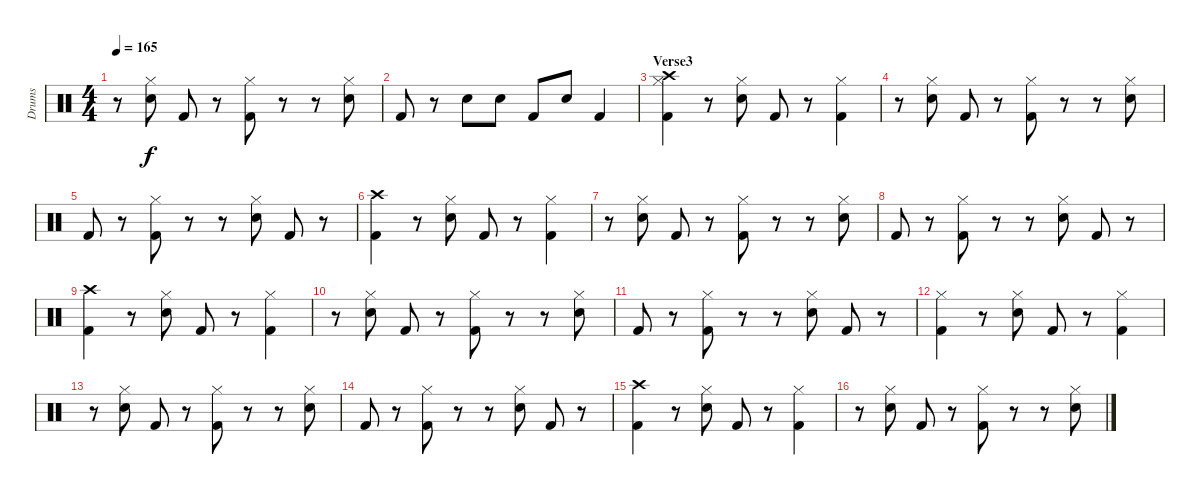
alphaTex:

\track ("Drums" "Drums") {instrument percussion}
\staff {score}
\articulation defaults
\ts (4 4)
\tempo 165
\clef neutral
\ks c
r.8{dy f} ("Electric Snare (hit)" "Hi-Hat (closed)").8 "Kick (hit) 2".8 r.8 ("Kick (hit) 2" "Hi-Hat (closed)").8 r.8 r.8 ("Hi-Hat (closed)" "Electric Snare (hit)").8 |
"Kick (hit) 2".8 r.8 "Electric Snare (hit)".8 "Electric Snare (hit)".8 "Kick (hit) 2".8 "Electric Snare (hit)".8 "Kick (hit) 2".4 |
\section ("" "Verse3")
("Kick (hit) 2" "Hi-Hat (closed)" "Crash high (hit)").4 r.8 ("Electric Snare (hit)" "Hi-Hat (closed)").8 "Kick (hit) 2".8 r.8 ("Kick (hit) 2" "Hi-Hat (closed)").4 |
r.8 ("Electric Snare (hit)" "Hi-Hat (closed)").8 "Kick (hit) 2".8 r.8 ("Kick (hit) 2" "Hi-Hat (closed)").8 r.8 r.8 ("Hi-Hat (closed)" "Electric Snare (hit)").8 |
"Kick (hit) 2".8 r.8 ("Hi-Hat (closed)" "Kick (hit) 2").8 r.8 r.8 ("Hi-Hat (closed)" "Electric Snare (hit)").8 "Kick (hit) 2".8 r.8 |
("Kick (hit) 2" "Crash high (hit)").4 r.8 ("Electric Snare (hit)" "Hi-Hat (closed)").8 "Kick (hit) 2".8 r.8 ("Kick (hit) 2" "Hi-Hat (closed)").4 |
r.8 ("Electric Snare (hit)" "Hi-Hat (closed)").8 "Kick (hit) 2".8 r.8 ("Kick (hit) 2" "Hi-Hat (closed)").8 r.8 r.8 ("Hi-Hat (closed)" "Electric Snare (hit)").8 |
"Kick (hit) 2".8 r.8 ("Hi-Hat (closed)" "Kick (hit) 2").8 r.8 r.8 ("Hi-Hat (closed)" "Electric Snare (hit)").8 "Kick (hit) 2".8 r.8 |
("Kick (hit) 2" "Crash high (hit)").4 r.8 ("Electric Snare (hit)" "Hi-Hat (closed)").8 "Kick (hit) 2".8 r.8 ("Kick (hit) 2" "Hi-Hat (closed)").4 |
r.8 ("Electric Snare (hit)" "Hi-Hat (closed)").8 "Kick (hit) 2".8 r.8 ("Kick (hit) 2" "Hi-Hat (closed)").8 r.8 r.8 ("Hi-Hat (closed)" "Electric Snare (hit)").8 |
"Kick (hit) 2".8 r.8 ("Hi-Hat (closed)" "Kick (hit) 2").8 r.8 r.8 ("Hi-Hat (closed)" "Electric Snare (hit)").8 "Kick (hit) 2".8 r.8 |
("Kick (hit) 2" "Hi-Hat (closed)").4 r.8 ("Electric Snare (hit)" "Hi-Hat (closed)").8 "Kick (hit) 2".8 r.8 ("Kick (hit) 2" "Hi-Hat (closed)").4 |
r.8 ("Electric Snare (hit)" "Hi-Hat (closed)").8 "Kick (hit) 2".8 r.8 ("Kick (hit) 2" "Hi-Hat (closed)").8 r.8 r.8 ("Hi-Hat (closed)" "Electric Snare (hit)").8 |
"Kick (hit) 2".8 r.8 ("Hi-Hat (closed)" "Kick (hit) 2").8 r.8 r.8 ("Hi-Hat (closed)" "Electric Snare (hit)").8 "Kick (hit) 2".8 r.8 |
("Kick (hit) 2" "Crash high (hit)").4 r.8 ("Electric Snare (hit)" "Hi-Hat (closed)").8 "Kick (hit) 2".8 r.8 ("Kick (hit) 2" "Hi-Hat (closed)").4 |
r.8 ("Electric Snare (hit)" "Hi-Hat (closed)").8 "Kick (hit) 2".8 r.8 ("Kick (hit) 2" "Hi-Hat (closed)").8 r.8 r.8 ("Hi-Hat (closed)" "Electric Snare (hit)").8
